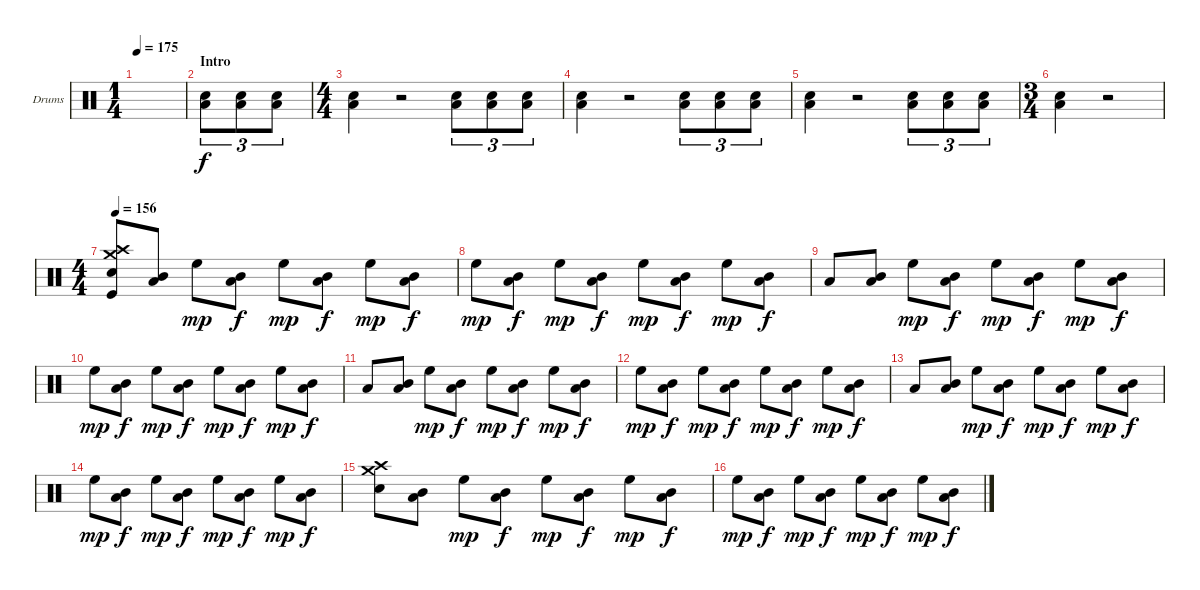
\bracketExtendMode groupsimilarinstruments
\firstSystemTrackNameOrientation horizontal
\otherSystemsTrackNameOrientation horizontal
\track ("Drums" "Drums") {instrument percussion}
\staff {score}
\articulation defaults
\ts (1 4)
\tempo 175
\clef neutral
\ks c
|
\section ("" "Intro")
("Snare (hit) 2" "Low Tom (hit)").8{tu (3 2)} ("Snare (hit) 2" "Low Tom (hit)").8{tu (3 2)} ("Snare (hit) 2" "Low Tom (hit)").8{tu (3 2)} |
\ts (4 4)
\beaming (8 2 2 2 2)
("Snare (hit) 2" "Low Tom (hit)").4 r.2 ("Snare (hit) 2" "Low Tom (hit)").8{tu (3 2)} ("Snare (hit) 2" "Low Tom (hit)").8{tu (3 2)} ("Snare (hit) 2" "Low Tom (hit)").8{tu (3 2)} |
("Snare (hit) 2" "Low Tom (hit)").4 r.2 ("Snare (hit) 2" "Low Tom (hit)").8{tu (3 2)} ("Snare (hit) 2" "Low Tom (hit)").8{tu (3 2)} ("Snare (hit) 2" "Low Tom (hit)").8{tu (3 2)} |
("Snare (hit) 2" "Low Tom (hit)").4 r.2 ("Snare (hit) 2" "Low Tom (hit)").8{tu (3 2)} ("Snare (hit) 2" "Low Tom (hit)").8{tu (3 2)} ("Snare (hit) 2" "Low Tom (hit)").8{tu (3 2)} |
\ts (3 4)
\beaming (8 2 2 2)
("Snare (hit) 2" "Low Tom (hit)").4 r.2 |
\ts (4 4)
\beaming (8 2 2 2 2)
\tempo 156
("Crash medium (hit)" "Crash high (hit)" "Snare (hit) 2" "Kick (hit)").8 ("Mid Tom (hit)" "Low Tom (hit)").8 "High Floor Tom (hit)".8{dy mp} ("Mid Tom (hit)" "Low Tom (hit)").8{dy f} "High Floor Tom (hit)".8{dy mp} ("Mid Tom (hit)" "Low Tom (hit)").8{dy f} "High Floor Tom (hit)".8{dy mp} ("Mid Tom (hit)" "Low Tom (hit)").8{dy f} |
"High Floor Tom (hit)".8{dy mp} ("Mid Tom (hit)" "Low Tom (hit)").8{dy f} "High Floor Tom (hit)".8{dy mp} ("Mid Tom (hit)" "Low Tom (hit)").8{dy f} "High Floor Tom (hit)".8{dy mp} ("Mid Tom (hit)" "Low Tom (hit)").8{dy f} "High Floor Tom (hit)".8{dy mp} ("Mid Tom (hit)" "Low Tom (hit)").8{dy f} |
"Low Tom (hit)".8 ("Mid Tom (hit)" "Low Tom (hit)").8 "High Floor Tom (hit)".8{dy mp} ("Mid Tom (hit)" "Low Tom (hit)").8{dy f} "High Floor Tom (hit)".8{dy mp} ("Mid Tom (hit)" "Low Tom (hit)").8{dy f} "High Floor Tom (hit)".8{dy mp} ("Mid Tom (hit)" "Low Tom (hit)").8{dy f} |
"High Floor Tom (hit)".8{dy mp} ("Mid Tom (hit)" "Low Tom (hit)").8{dy f} "High Floor Tom (hit)".8{dy mp} ("Mid Tom (hit)" "Low Tom (hit)").8{dy f} "High Floor Tom (hit)".8{dy mp} ("Mid Tom (hit)" "Low Tom (hit)").8{dy f} "High Floor Tom (hit)".8{dy mp} ("Mid Tom (hit)" "Low Tom (hit)").8{dy f} |
"Low Tom (hit)".8 ("Mid Tom (hit)" "Low Tom (hit)").8 "High Floor Tom (hit)".8{dy mp} ("Mid Tom (hit)" "Low Tom (hit)").8{dy f} "High Floor Tom (hit)".8{dy mp} ("Mid Tom (hit)" "Low Tom (hit)").8{dy f} "High Floor Tom (hit)".8{dy mp} ("Mid Tom (hit)" "Low Tom (hit)").8{dy f} |
"High Floor Tom (hit)".8{dy mp} ("Mid Tom (hit)" "Low Tom (hit)").8{dy f} "High Floor Tom (hit)".8{dy mp} ("Mid Tom (hit)" "Low Tom (hit)").8{dy f} "High Floor Tom (hit)".8{dy mp} ("Mid Tom (hit)" "Low Tom (hit)").8{dy f} "High Floor Tom (hit)".8{dy mp} ("Mid Tom (hit)" "Low Tom (hit)").8{dy f} |
"Low Tom (hit)".8 ("Mid Tom (hit)" "Low Tom (hit)").8 "High Floor Tom (hit)".8{dy mp} ("Mid Tom (hit)" "Low Tom (hit)").8{dy f} "High Floor Tom (hit)".8{dy mp} ("Mid Tom (hit)" "Low Tom (hit)").8{dy f} "High Floor Tom (hit)".8{dy mp} ("Mid Tom (hit)" "Low Tom (hit)").8{dy f} |
"High Floor Tom (hit)".8{dy mp} ("Mid Tom (hit)" "Low Tom (hit)").8{dy f} "High Floor Tom (hit)".8{dy mp} ("Mid Tom (hit)" "Low Tom (hit)").8{dy f} "High Floor Tom (hit)".8{dy mp} ("Mid Tom (hit)" "Low Tom (hit)").8{dy f} "High Floor Tom (hit)".8{dy mp} ("Mid Tom (hit)" "Low Tom (hit)").8{dy f} |
("Crash medium (hit)" "Crash high (hit)" "Snare (hit) 2").8 ("Mid Tom (hit)" "Low Tom (hit)").8 "High Floor Tom (hit)".8{dy mp} ("Mid Tom (hit)" "Low Tom (hit)").8{dy f} "High Floor Tom (hit)".8{dy mp} ("Mid Tom (hit)" "Low Tom (hit)").8{dy f} "High Floor Tom (hit)".8{dy mp} ("Mid Tom (hit)" "Low Tom (hit)").8{dy f} |
"High Floor Tom (hit)".8{dy mp} ("Mid Tom (hit)" "Low Tom (hit)").8{dy f} "High Floor Tom (hit)".8{dy mp} ("Mid Tom (hit)" "Low Tom (hit)").8{dy f} "High Floor Tom (hit)".8{dy mp} ("Mid Tom (hit)" "Low Tom (hit)").8{dy f} "High Floor Tom (hit)".8{dy mp} ("Mid Tom (hit)" "Low Tom (hit)").8{dy f}
